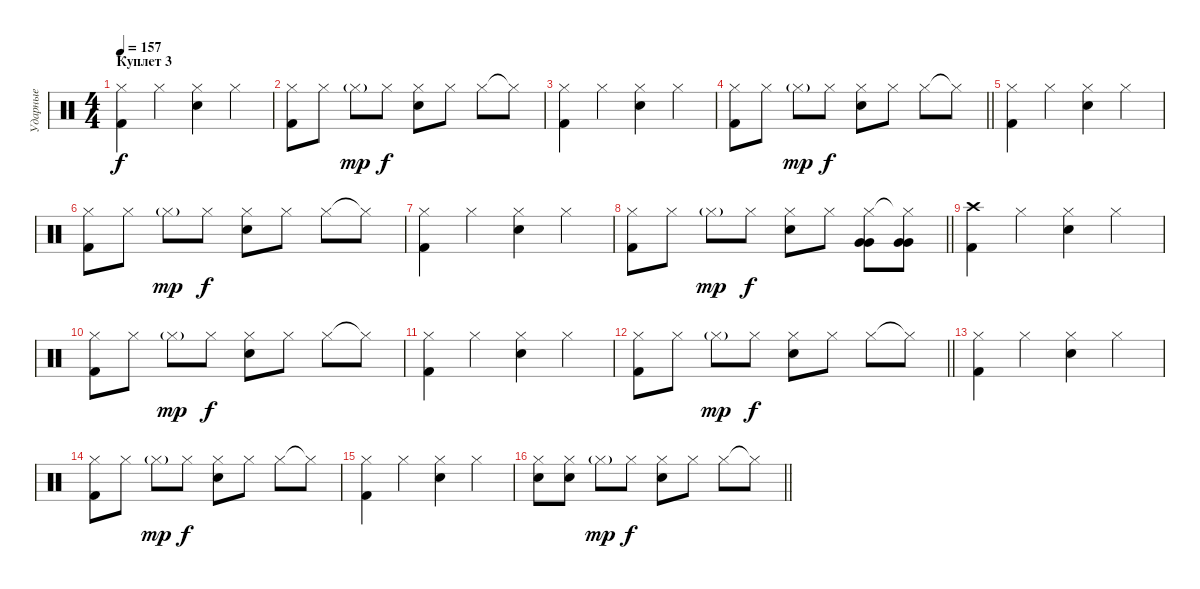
\track ("Ударные" "Ударные") {instrument percussion}
\staff {score}
\articulation defaults
\ts (4 4)
\section ("" "Куплет 3")
\tempo 157
\clef neutral
\ks c
("Hi-Hat (closed)" "Kick (hit) 2").4{dy f} "Hi-Hat (closed)".4 ("Hi-Hat (closed)" "Snare (hit) 2").4 "Hi-Hat (closed)".4 |
("Hi-Hat (closed)" "Kick (hit) 2").8 "Hi-Hat (closed)".8 "Hi-Hat (closed)"{g}.8{dy mp} "Hi-Hat (closed)".8{dy f} ("Hi-Hat (closed)" "Snare (hit) 2").8 "Hi-Hat (closed)".8 "Hi-Hat (closed)".8 "Hi-Hat (closed)"{t}.8 |
("Hi-Hat (closed)" "Kick (hit) 2").4 "Hi-Hat (closed)".4 ("Hi-Hat (closed)" "Snare (hit) 2").4 "Hi-Hat (closed)".4 |
\barLineRight lightlight
("Hi-Hat (closed)" "Kick (hit) 2").8 "Hi-Hat (closed)".8 "Hi-Hat (closed)"{g}.8{dy mp} "Hi-Hat (closed)".8{dy f} ("Hi-Hat (closed)" "Snare (hit) 2").8 "Hi-Hat (closed)".8 "Hi-Hat (closed)".8 "Hi-Hat (closed)"{t}.8 |
("Hi-Hat (closed)" "Kick (hit) 2").4 "Hi-Hat (closed)".4 ("Hi-Hat (closed)" "Snare (hit) 2").4 "Hi-Hat (closed)".4 |
("Hi-Hat (closed)" "Kick (hit) 2").8 "Hi-Hat (closed)".8 "Hi-Hat (closed)"{g}.8{dy mp} "Hi-Hat (closed)".8{dy f} ("Hi-Hat (closed)" "Snare (hit) 2").8 "Hi-Hat (closed)".8 "Hi-Hat (closed)".8 "Hi-Hat (closed)"{t}.8 |
("Hi-Hat (closed)" "Kick (hit) 2").4 "Hi-Hat (closed)".4 ("Hi-Hat (closed)" "Snare (hit) 2").4 "Hi-Hat (closed)".4 |
\barLineRight lightlight
("Hi-Hat (closed)" "Kick (hit) 2").8 "Hi-Hat (closed)".8 "Hi-Hat (closed)"{g}.8{dy mp} "Hi-Hat (closed)".8{dy f} ("Hi-Hat (closed)" "Snare (hit) 2").8 "Hi-Hat (closed)".8 ("Hi-Hat (closed)" "Very Low Tom (hit)" "Very Low Tom (hit)").8 ("Hi-Hat (closed)"{t} "Very Low Tom (hit)" "Very Low Tom (hit)").8 |
("Crash high (hit)" "Kick (hit) 2").4 "Hi-Hat (closed)".4 ("Hi-Hat (closed)" "Snare (hit) 2").4 "Hi-Hat (closed)".4 |
("Hi-Hat (closed)" "Kick (hit) 2").8 "Hi-Hat (closed)".8 "Hi-Hat (closed)"{g}.8{dy mp} "Hi-Hat (closed)".8{dy f} ("Hi-Hat (closed)" "Snare (hit) 2").8 "Hi-Hat (closed)".8 "Hi-Hat (closed)".8 "Hi-Hat (closed)"{t}.8 |
("Hi-Hat (closed)" "Kick (hit) 2").4 "Hi-Hat (closed)".4 ("Hi-Hat (closed)" "Snare (hit) 2").4 "Hi-Hat (closed)".4 |
\barLineRight lightlight
("Hi-Hat (closed)" "Kick (hit) 2").8 "Hi-Hat (closed)".8 "Hi-Hat (closed)"{g}.8{dy mp} "Hi-Hat (closed)".8{dy f} ("Hi-Hat (closed)" "Snare (hit) 2").8 "Hi-Hat (closed)".8 "Hi-Hat (closed)".8 "Hi-Hat (closed)"{t}.8 |
("Hi-Hat (closed)" "Kick (hit) 2").4 "Hi-Hat (closed)".4 ("Hi-Hat (closed)" "Snare (hit) 2").4 "Hi-Hat (closed)".4 |
("Hi-Hat (closed)" "Kick (hit) 2").8 "Hi-Hat (closed)".8 "Hi-Hat (closed)"{g}.8{dy mp} "Hi-Hat (closed)".8{dy f} ("Hi-Hat (closed)" "Snare (hit) 2").8 "Hi-Hat (closed)".8 "Hi-Hat (closed)".8 "Hi-Hat (closed)"{t}.8 |
("Hi-Hat (closed)" "Kick (hit) 2").4 "Hi-Hat (closed)".4 ("Hi-Hat (closed)" "Snare (hit) 2").4 "Hi-Hat (closed)".4 |
\barLineRight lightlight
("Hi-Hat (closed)" "Snare (hit) 2").8 ("Hi-Hat (closed)" "Snare (hit) 2").8 "Hi-Hat (closed)"{g}.8{dy mp} "Hi-Hat (closed)".8{dy f} ("Hi-Hat (closed)" "Snare (hit) 2").8 "Hi-Hat (closed)".8 "Hi-Hat (closed)".8 "Hi-Hat (closed)"{t}.8
